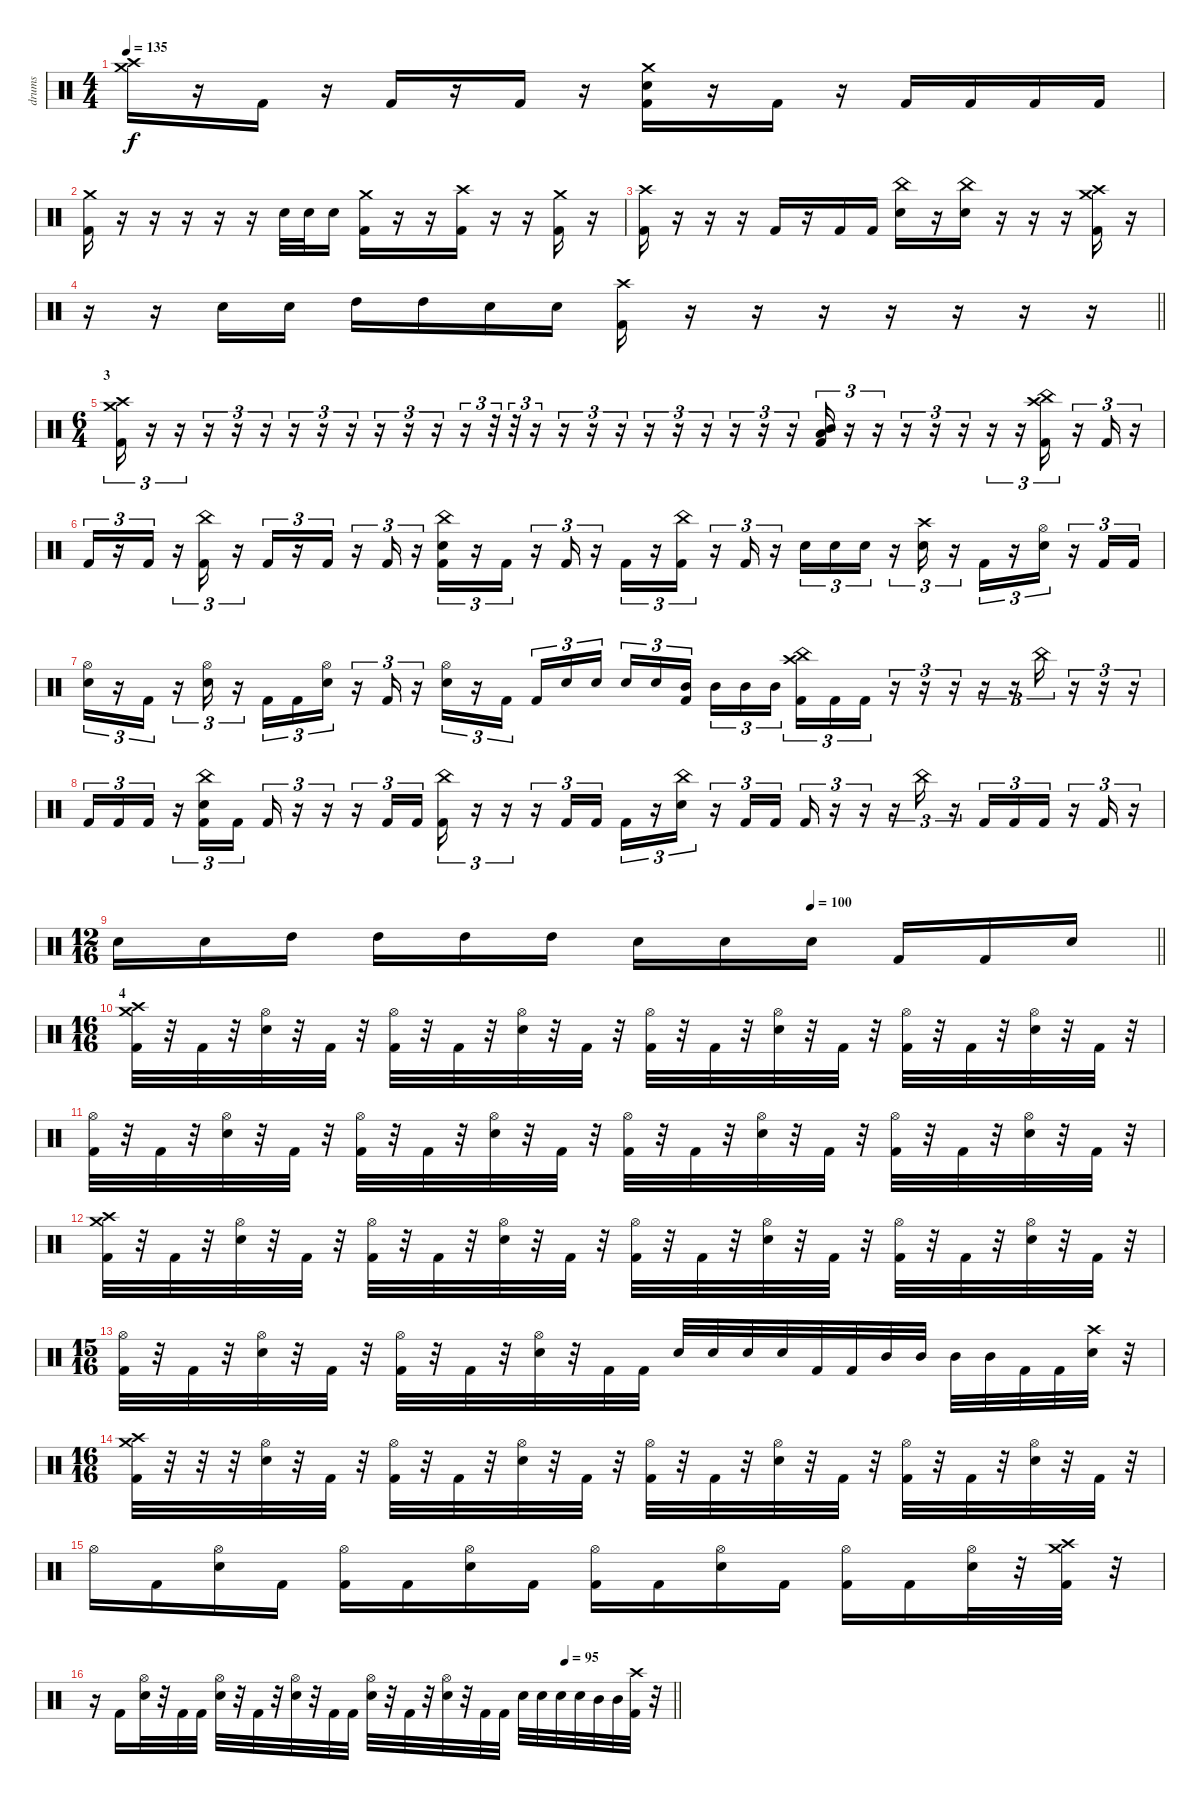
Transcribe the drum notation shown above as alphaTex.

\track ("drums" "drums") {instrument percussion}
\staff {score}
\articulation defaults
\ts (4 4)
\tempo 135
\clef neutral
\ks c
("Crash medium (hit)" "Crash high (hit)").16{dy f} r.16 "Kick (hit) 2".16 r.16 "Kick (hit) 2".16 r.16 "Kick (hit) 2".16 r.16 ("Crash medium (hit)" "Electric Snare (hit)" "Kick (hit) 2").16 r.16 "Kick (hit) 2".16 r.16 "Kick (hit) 2".16 "Kick (hit) 2".16 "Kick (hit) 2".16 "Kick (hit) 2".16 |
("Crash medium (hit)" "Kick (hit) 2").16 r.16 r.16 r.16 r.16 r.16 "Electric Snare (hit)".32 "Electric Snare (hit)".32 "Electric Snare (hit)".16 ("Crash medium (hit)" "Kick (hit) 2").16 r.16 r.16 ("Crash high (hit)" "Kick (hit) 2").16 r.16 r.16 ("Crash medium (hit)" "Kick (hit) 2").16 r.16 |
("Crash high (hit)" "Kick (hit) 2").16 r.16 r.16 r.16 "Kick (hit) 2".16 r.16 "Kick (hit) 2".16 "Kick (hit) 2".16 ("China (hit)" "Electric Snare (hit)").16 r.16 ("China (hit)" "Electric Snare (hit)").16 r.16 r.16 r.16 ("Crash medium (hit)" "Crash high (hit)" "Kick (hit) 2").16 r.16 |
\barLineRight lightlight
r.16 r.16 "Electric Snare (hit)".16 "Electric Snare (hit)".16 "High Tom (hit)".16 "High Tom (hit)".16 "Electric Snare (hit)".16 "Electric Snare (hit)".16 ("Crash high (hit)" "Kick (hit) 2").16 r.16 r.16 r.16 r.16 r.16 r.16 r.16 |
\ts (6 4)
\section ("" "3")
("Crash medium (hit)" "Crash high (hit)" "Kick (hit) 2").16{tu (3 2)} r.16{tu (3 2)} r.16{tu (3 2)} r.16{tu (3 2)} r.16{tu (3 2)} r.16{tu (3 2)} r.16{tu (3 2)} r.16{tu (3 2)} r.16{tu (3 2)} r.16{tu (3 2)} r.16{tu (3 2)} r.16{tu (3 2)} r.16{tu (3 2)} r.32{tu (3 2)} r.32{tu (3 2)} r.16{tu (3 2)} r.16{tu (3 2)} r.16{tu (3 2)} r.16{tu (3 2)} r.16{tu (3 2)} r.16{tu (3 2)} r.16{tu (3 2)} r.16{tu (3 2)} r.16{tu (3 2)} r.16{tu (3 2)} ("Mid Tom (hit)" "Low Floor Tom (hit)" "Kick (hit) 2").16{tu (3 2)} r.16{tu (3 2)} r.16{tu (3 2)} r.16{tu (3 2)} r.16{tu (3 2)} r.16{tu (3 2)} r.16{tu (3 2)} r.16{tu (3 2)} ("China (hit)" "Crash high (hit)" "Kick (hit) 2").16{tu (3 2)} r.16{tu (3 2)} "Kick (hit) 2".16{tu (3 2)} r.16{tu (3 2)} |
"Kick (hit) 2".16{tu (3 2)} r.16{tu (3 2)} "Kick (hit) 2".16{tu (3 2)} r.16{tu (3 2)} ("China (hit)" "Kick (hit) 2").16{tu (3 2)} r.16{tu (3 2)} "Kick (hit) 2".16{tu (3 2)} r.16{tu (3 2)} "Kick (hit) 2".16{tu (3 2)} r.16{tu (3 2)} "Kick (hit) 2".16{tu (3 2)} r.16{tu (3 2)} ("China (hit)" "Electric Snare (hit)" "Kick (hit) 2").16{tu (3 2)} r.16{tu (3 2)} "Kick (hit) 2".16{tu (3 2)} r.16{tu (3 2)} "Kick (hit) 2".16{tu (3 2)} r.16{tu (3 2)} "Kick (hit) 2".16{tu (3 2)} r.16{tu (3 2)} ("China (hit)" "Kick (hit) 2").16{tu (3 2)} r.16{tu (3 2)} "Kick (hit) 2".16{tu (3 2)} r.16{tu (3 2)} "Electric Snare (hit)".16{tu (3 2)} "Electric Snare (hit)".16{tu (3 2)} "Electric Snare (hit)".16{tu (3 2)} r.16{tu (3 2)} ("Crash high (hit)" "Electric Snare (hit)").16{tu (3 2)} r.16{tu (3 2)} "Kick (hit) 2".16{tu (3 2)} r.16{tu (3 2)} ("Hi-Hat (open)" "Electric Snare (hit)").16{tu (3 2)} r.16{tu (3 2)} "Kick (hit) 2".16{tu (3 2)} "Kick (hit) 2".16{tu (3 2)} |
("Hi-Hat (open)" "Electric Snare (hit)").16{tu (3 2)} r.16{tu (3 2)} "Kick (hit) 2".16{tu (3 2)} r.16{tu (3 2)} ("Hi-Hat (open)" "Electric Snare (hit)").16{tu (3 2)} r.16{tu (3 2)} "Kick (hit) 2".16{tu (3 2)} "Kick (hit) 2".16{tu (3 2)} ("Hi-Hat (open)" "Electric Snare (hit)").16{tu (3 2)} r.16{tu (3 2)} "Kick (hit) 2".16{tu (3 2)} r.16{tu (3 2)} ("Hi-Hat (open)" "Electric Snare (hit)").16{tu (3 2)} r.16{tu (3 2)} "Kick (hit) 2".16{tu (3 2) beam splitsecondary} "Kick (hit) 2".16{tu (3 2)} "Electric Snare (hit)".16{tu (3 2)} "Electric Snare (hit)".16{tu (3 2)} "Electric Snare (hit)".16{tu (3 2)} "Electric Snare (hit)".16{tu (3 2)} ("Mid Tom (hit)" "Kick (hit) 2").16{tu (3 2) beam splitsecondary} "Mid Tom (hit)".16{tu (3 2)} "Mid Tom (hit)".16{tu (3 2)} "Mid Tom (hit)".16{tu (3 2) beam splitsecondary} ("China (hit)" "Crash high (hit)" "Kick (hit) 2").16{tu (3 2)} "Kick (hit) 2".16{tu (3 2)} "Kick (hit) 2".16{tu (3 2)} r.16{tu (3 2)} r.16{tu (3 2)} r.16{tu (3 2)} r.16{tu (3 2)} r.16{tu (3 2)} "China (hit)".16{tu (3 2)} r.16{tu (3 2)} r.16{tu (3 2)} r.16{tu (3 2)} |
"Kick (hit) 2".16{tu (3 2)} "Kick (hit) 2".16{tu (3 2)} "Kick (hit) 2".16{tu (3 2)} r.16{tu (3 2)} ("China (hit)" "Electric Snare (hit)" "Kick (hit) 2").16{tu (3 2)} "Kick (hit) 2".16{tu (3 2) beam splitsecondary} "Kick (hit) 2".16{tu (3 2)} r.16{tu (3 2)} r.16{tu (3 2)} r.16{tu (3 2)} "Kick (hit) 2".16{tu (3 2)} "Kick (hit) 2".16{tu (3 2) beam splitsecondary} ("China (hit)" "Kick (hit) 2").16{tu (3 2)} r.16{tu (3 2)} r.16{tu (3 2)} r.16{tu (3 2)} "Kick (hit) 2".16{tu (3 2)} "Kick (hit) 2".16{tu (3 2)} "Kick (hit) 2".16{tu (3 2)} r.16{tu (3 2)} ("China (hit)" "Electric Snare (hit)").16{tu (3 2)} r.16{tu (3 2)} "Kick (hit) 2".16{tu (3 2)} "Kick (hit) 2".16{tu (3 2) beam splitsecondary} "Kick (hit) 2".16{tu (3 2)} r.16{tu (3 2)} r.16{tu (3 2)} r.16{tu (3 2)} "China (hit)".16{tu (3 2)} r.16{tu (3 2)} "Kick (hit) 2".16{tu (3 2)} "Kick (hit) 2".16{tu (3 2)} "Kick (hit) 2".16{tu (3 2)} r.16{tu (3 2)} "Kick (hit) 2".16{tu (3 2)} r.16{tu (3 2)} |
\ts (12 16)
\tempo (100 0.6666666666666666)
\barLineRight lightlight "Electric Snare (hit)".16 "Electric Snare (hit)".16 "High Tom (hit)".16 "High Tom (hit)".16 "High Tom (hit)".16 "High Tom (hit)".16 "Electric Snare (hit)".16 "Electric Snare (hit)".16 "Electric Snare (hit)".16 "Kick (hit) 2".16 "Kick (hit) 2".16 "Electric Snare (hit)".16
|
\ts (16 16)
\section ("" "4")
("Crash high (hit)" "Crash medium (hit)" "Kick (hit) 2").32 r.32 "Kick (hit) 2".32 r.32 ("Hi-Hat (open)" "Electric Snare (hit)").32 r.32 "Kick (hit) 2".32 r.32 ("Hi-Hat (open)" "Kick (hit) 2").32 r.32 "Kick (hit) 2".32 r.32 ("Hi-Hat (open)" "Electric Snare (hit)").32 r.32 "Kick (hit) 2".32 r.32 ("Hi-Hat (open)" "Kick (hit) 2").32 r.32 "Kick (hit) 2".32 r.32 ("Hi-Hat (open)" "Electric Snare (hit)").32 r.32 "Kick (hit) 2".32 r.32 ("Hi-Hat (open)" "Kick (hit) 2").32 r.32 "Kick (hit) 2".32 r.32 ("Hi-Hat (open)" "Electric Snare (hit)").32 r.32 "Kick (hit) 2".32 r.32 |
("Hi-Hat (open)" "Kick (hit) 2").32 r.32 "Kick (hit) 2".32 r.32 ("Hi-Hat (open)" "Electric Snare (hit)").32 r.32 "Kick (hit) 2".32 r.32 ("Hi-Hat (open)" "Kick (hit) 2").32 r.32 "Kick (hit) 2".32 r.32 ("Hi-Hat (open)" "Electric Snare (hit)").32 r.32 "Kick (hit) 2".32 r.32 ("Hi-Hat (open)" "Kick (hit) 2").32 r.32 "Kick (hit) 2".32 r.32 ("Hi-Hat (open)" "Electric Snare (hit)").32 r.32 "Kick (hit) 2".32 r.32 ("Hi-Hat (open)" "Kick (hit) 2").32 r.32 "Kick (hit) 2".32 r.32 ("Hi-Hat (open)" "Electric Snare (hit)").32 r.32 "Kick (hit) 2".32 r.32 |
("Crash high (hit)" "Crash medium (hit)" "Kick (hit) 2").32 r.32 "Kick (hit) 2".32 r.32 ("Hi-Hat (open)" "Electric Snare (hit)").32 r.32 "Kick (hit) 2".32 r.32 ("Hi-Hat (open)" "Kick (hit) 2").32 r.32 "Kick (hit) 2".32 r.32 ("Hi-Hat (open)" "Electric Snare (hit)").32 r.32 "Kick (hit) 2".32 r.32 ("Hi-Hat (open)" "Kick (hit) 2").32 r.32 "Kick (hit) 2".32 r.32 ("Hi-Hat (open)" "Electric Snare (hit)").32 r.32 "Kick (hit) 2".32 r.32 ("Hi-Hat (open)" "Kick (hit) 2").32 r.32 "Kick (hit) 2".32 r.32 ("Hi-Hat (open)" "Electric Snare (hit)").32 r.32 "Kick (hit) 2".32 r.32 |
\ts (15 16)
("Hi-Hat (open)" "Kick (hit) 2").32 r.32 "Kick (hit) 2".32 r.32 ("Hi-Hat (open)" "Electric Snare (hit)").32 r.32 "Kick (hit) 2".32 r.32 ("Hi-Hat (open)" "Kick (hit) 2").32 r.32 "Kick (hit) 2".32 r.32 ("Hi-Hat (open)" "Electric Snare (hit)").32 r.32 "Kick (hit) 2".32 "Kick (hit) 2".32 "Electric Snare (hit)".32 "Electric Snare (hit)".32 "Electric Snare (hit)".32 "Electric Snare (hit)".32 "Kick (hit) 2".32 "Kick (hit) 2".32 "Mid Tom (hit)".32 "Mid Tom (hit)".32 "Mid Tom (hit)".32 "Mid Tom (hit)".32 "Kick (hit) 2".32 "Kick (hit) 2".32 ("Crash high (hit)" "Electric Snare (hit)").32 r.32 |
\ts (16 16)
("Crash medium (hit)" "Crash high (hit)" "Kick (hit) 2").32 r.32 r.32 r.32 ("Hi-Hat (open)" "Electric Snare (hit)").32 r.32 "Kick (hit) 2".32 r.32 ("Hi-Hat (open)" "Kick (hit) 2").32 r.32 "Kick (hit) 2".32 r.32 ("Hi-Hat (open)" "Electric Snare (hit)").32 r.32 "Kick (hit) 2".32 r.32 ("Hi-Hat (open)" "Kick (hit) 2").32 r.32 "Kick (hit) 2".32 r.32 ("Hi-Hat (open)" "Electric Snare (hit)").32 r.32 "Kick (hit) 2".32 r.32 ("Hi-Hat (open)" "Kick (hit) 2").32 r.32 "Kick (hit) 2".32 r.32 ("Hi-Hat (open)" "Electric Snare (hit)").32 r.32 "Kick (hit) 2".32 r.32 |
"Hi-Hat (open)".16 "Kick (hit) 2".16 ("Hi-Hat (open)" "Electric Snare (hit)").16 "Kick (hit) 2".16 ("Hi-Hat (open)" "Kick (hit) 2").16 "Kick (hit) 2".16 ("Hi-Hat (open)" "Electric Snare (hit)").16 "Kick (hit) 2".16 ("Hi-Hat (open)" "Kick (hit) 2").16 "Kick (hit) 2".16 ("Hi-Hat (open)" "Electric Snare (hit)").16 "Kick (hit) 2".16 ("Hi-Hat (open)" "Kick (hit) 2").16 "Kick (hit) 2".16 ("Hi-Hat (open)" "Electric Snare (hit)").32 r.32 ("Crash medium (hit)" "Crash high (hit)" "Kick (hit) 2").32 r.32 |
\tempo (95 0.8125)
\barLineRight lightlight
r.16 "Kick (hit) 2".16 ("Hi-Hat (open)" "Electric Snare (hit)").32 r.32 "Kick (hit) 2".32 "Kick (hit) 2".32 ("Hi-Hat (open)" "Electric Snare (hit)").32 r.32 "Kick (hit) 2".32 r.32 ("Hi-Hat (open)" "Electric Snare (hit)").32 r.32 "Kick (hit) 2".32 "Kick (hit) 2".32 ("Hi-Hat (open)" "Electric Snare (hit)").32 r.32 "Kick (hit) 2".32 r.32 ("Hi-Hat (open)" "Electric Snare (hit)").32 r.32 "Kick (hit) 2".32 "Kick (hit) 2".32 "Electric Snare (hit)".32 "Electric Snare (hit)".32 "Electric Snare (hit)".32 "Electric Snare (hit)".32 "Mid Tom (hit)".32 "Mid Tom (hit)".32 ("Crash high (hit)" "Kick (hit) 2").32 r.32
